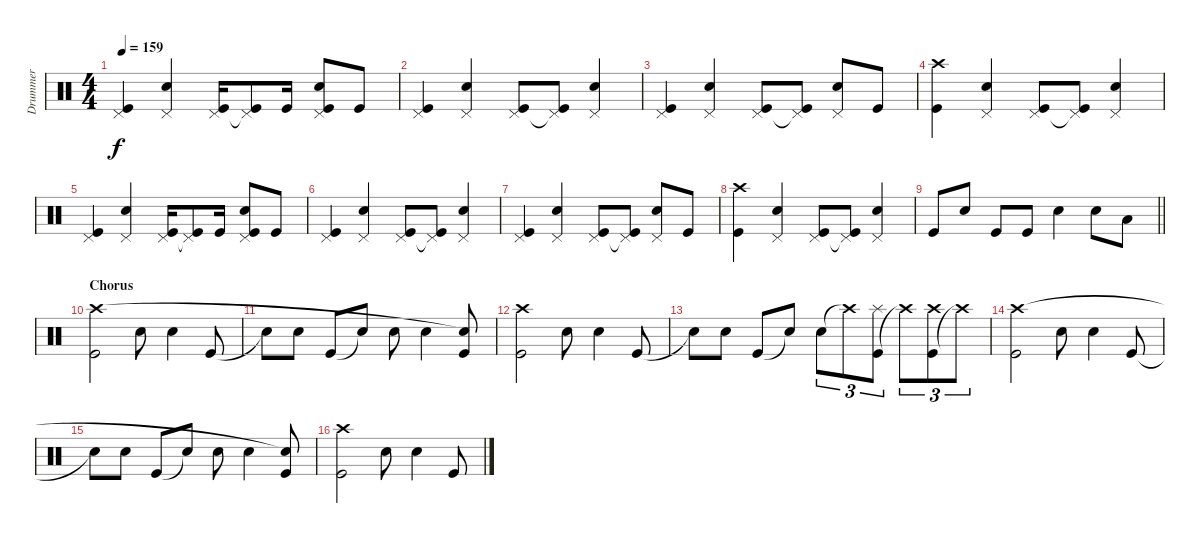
\track ("Drummer" "Drummer") {instrument percussion}
\staff {score}
\articulation defaults
\ts (4 4)
\tempo 159
\clef neutral
\ks c
("Kick (hit)" "Pedal Hi-Hat (hit)").4{dy f} ("Pedal Hi-Hat (hit)" "Snare (hit) 2").4 ("Kick (hit)" "Pedal Hi-Hat (hit)").16 ("Kick (hit)" "Pedal Hi-Hat (hit)"{t}).8 "Kick (hit)".16 ("Kick (hit)" "Pedal Hi-Hat (hit)" "Snare (hit) 2").8 "Kick (hit)".8 |
("Kick (hit)" "Pedal Hi-Hat (hit)").4 ("Pedal Hi-Hat (hit)" "Snare (hit) 2").4 ("Kick (hit)" "Pedal Hi-Hat (hit)").8 ("Kick (hit)" "Pedal Hi-Hat (hit)"{t}).8 ("Pedal Hi-Hat (hit)" "Snare (hit) 2").4 |
("Kick (hit)" "Pedal Hi-Hat (hit)").4 ("Pedal Hi-Hat (hit)" "Snare (hit) 2").4 ("Kick (hit)" "Pedal Hi-Hat (hit)").8 ("Kick (hit)" "Pedal Hi-Hat (hit)"{t}).8 ("Pedal Hi-Hat (hit)" "Snare (hit) 2").8 "Kick (hit)".8 |
("Kick (hit)" "Crash high (hit)").4 ("Pedal Hi-Hat (hit)" "Snare (hit) 2").4 ("Kick (hit)" "Pedal Hi-Hat (hit)").8 ("Kick (hit)" "Pedal Hi-Hat (hit)"{t}).8 ("Pedal Hi-Hat (hit)" "Snare (hit) 2").4 |
("Kick (hit)" "Pedal Hi-Hat (hit)").4 ("Pedal Hi-Hat (hit)" "Snare (hit) 2").4 ("Kick (hit)" "Pedal Hi-Hat (hit)").16 ("Kick (hit)" "Pedal Hi-Hat (hit)"{t}).8 "Kick (hit)".16 ("Kick (hit)" "Pedal Hi-Hat (hit)" "Snare (hit) 2").8 "Kick (hit)".8 |
("Kick (hit)" "Pedal Hi-Hat (hit)").4 ("Pedal Hi-Hat (hit)" "Snare (hit) 2").4 ("Kick (hit)" "Pedal Hi-Hat (hit)").8 ("Kick (hit)" "Pedal Hi-Hat (hit)"{t}).8 ("Pedal Hi-Hat (hit)" "Snare (hit) 2").4 |
("Kick (hit)" "Pedal Hi-Hat (hit)").4 ("Pedal Hi-Hat (hit)" "Snare (hit) 2").4 ("Kick (hit)" "Pedal Hi-Hat (hit)").8 ("Kick (hit)" "Pedal Hi-Hat (hit)"{t}).8 ("Pedal Hi-Hat (hit)" "Snare (hit) 2").8 "Kick (hit)".8 |
("Kick (hit)" "Crash high (hit)").4 ("Pedal Hi-Hat (hit)" "Snare (hit) 2").4 ("Kick (hit)" "Pedal Hi-Hat (hit)").8 ("Kick (hit)" "Pedal Hi-Hat (hit)"{t}).8 ("Pedal Hi-Hat (hit)" "Snare (hit) 2").4 |
\barLineRight lightlight "Kick (hit)".8 "Snare (hit) 2".8 "Kick (hit)".8 "Kick (hit)".8 "Snare (hit) 2".4 "Electric Snare (hit)".8 "Low Floor Tom (hit)".8
|
\section ("" "Chorus")
("Kick (hit)" "Crash high (hit)").2 "Snare (hit) 2".8 "Snare (hit) 2".4 "Kick (hit)".8 |
"Snare (hit)"{t}.8 "Snare (hit) 2".8 "Kick (hit)".8 "Snare (hit)"{t}.8 "Snare (hit) 2".8 "Snare (hit) 2".4 ("Kick (hit)" "Snare (hit)"{t}).8 |
("Kick (hit)" "Crash high (hit)").2 "Snare (hit) 2".8 "Snare (hit) 2".4 "Kick (hit)".8 |
"Snare (hit)"{t}.8 "Snare (hit) 2".8 "Kick (hit)".8 "Snare (hit)"{t}.8 "Snare (hit) 2".8{tu (3 2)} "Crash high (hit)"{t}.8{tu (3 2)} ("Kick (hit)" "Splash (hit)").8{tu (3 2)} "Crash high (hit)"{t}.8{tu (3 2)} ("Kick (hit)" "Crash high (hit)").8{tu (3 2)} "Crash high (hit)"{t}.8{tu (3 2)} |
("Kick (hit)" "Crash high (hit)").2 "Snare (hit) 2".8 "Snare (hit) 2".4 "Kick (hit)".8 |
"Snare (hit)"{t}.8 "Snare (hit) 2".8 "Kick (hit)".8 "Snare (hit)"{t}.8 "Snare (hit) 2".8 "Snare (hit) 2".4 ("Kick (hit)" "Snare (hit)"{t}).8 |
("Kick (hit)" "Crash high (hit)").2 "Snare (hit) 2".8 "Snare (hit) 2".4 "Kick (hit)".8
